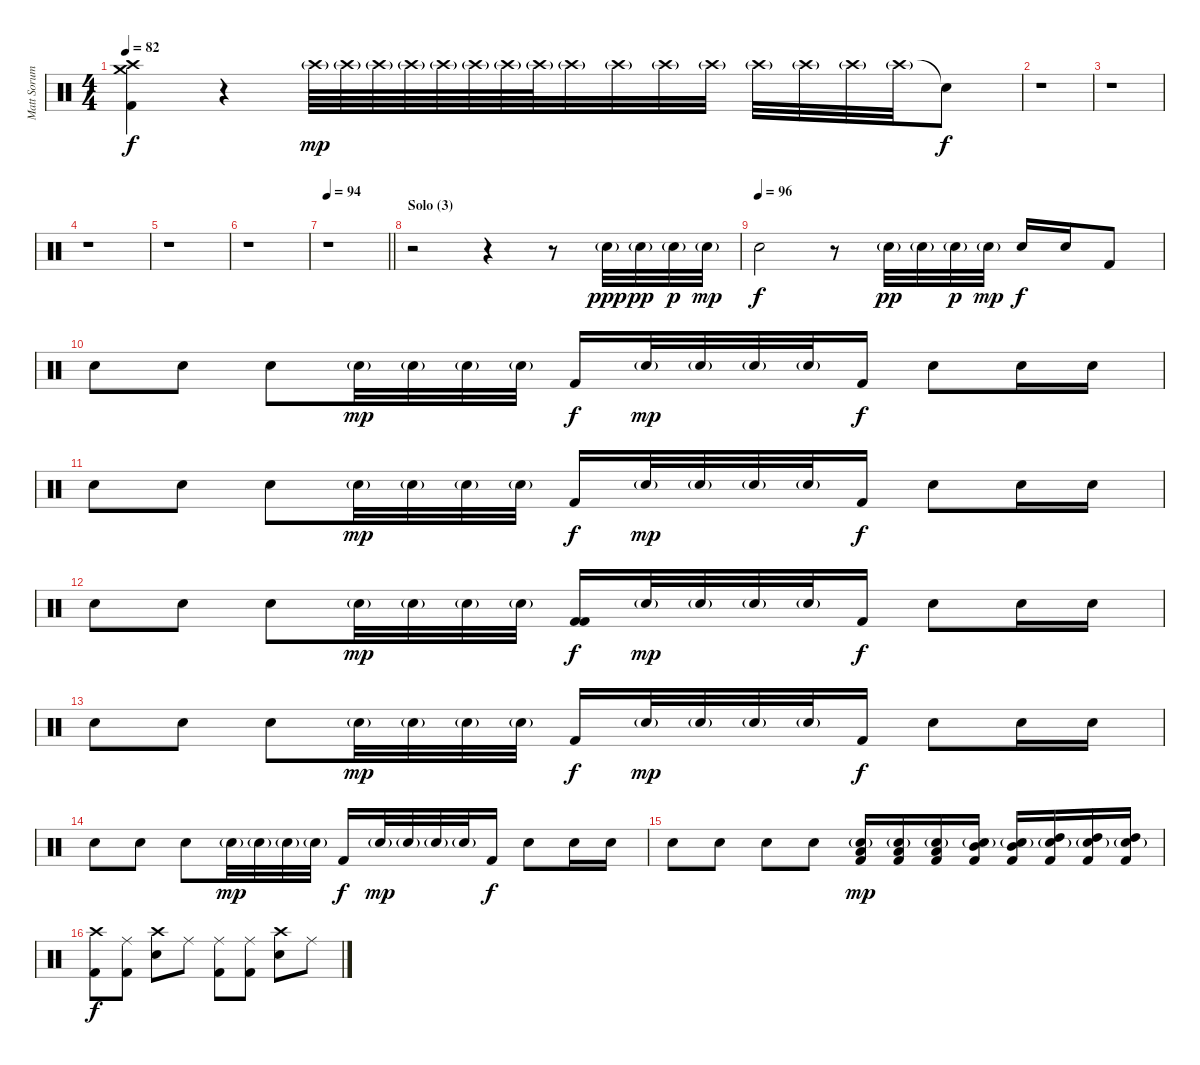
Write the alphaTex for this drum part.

\track ("Matt Sorum" "Matt Sorum") {instrument percussion}
\staff {score}
\articulation defaults
\ts (4 4)
\tempo 82
\clef neutral
\ks c
("Kick (hit) 2" "Crash medium (hit)" "Crash high (hit)").4{dy f} r.4 "Crash high (hit)"{g}.64{dy mp} "Crash high (hit)"{g}.64 "Crash high (hit)"{g}.64 "Crash high (hit)"{g}.64 "Crash high (hit)"{g}.64 "Crash high (hit)"{g}.64 "Crash high (hit)"{g}.64 "Crash high (hit)"{g}.64 "Crash high (hit)"{g}.32 "Crash high (hit)"{g}.32 "Crash high (hit)"{g}.32 "Crash high (hit)"{g}.32 "Crash high (hit)"{g}.32 "Crash high (hit)"{g}.32 "Crash high (hit)"{g}.32 "Crash high (hit)"{g}.32 "Snare (hit)"{t}.8{dy f} |
r.1 |
r.1 |
r.1 |
r.1 |
r.1 |
\tempo 94
\barLineRight lightlight
r.1 |
\section ("" "Solo (3)")
r.2 r.4 r.8 "Electric Snare (hit)"{g}.32{dy ppp} "Electric Snare (hit)"{g}.32{dy pp} "Electric Snare (hit)"{g}.32{dy p} "Electric Snare (hit)"{g}.32{dy mp} |
\tempo (96)
"Electric Snare (hit)".2{dy f} r.8 "Electric Snare (hit)"{g}.32{dy pp} "Electric Snare (hit)"{g}.32 "Electric Snare (hit)"{g}.32{dy p} "Electric Snare (hit)"{g}.32{dy mp} "Electric Snare (hit)".16{dy f} "Electric Snare (hit)".16 "Kick (hit) 2".8 |
"Electric Snare (hit)".8 "Electric Snare (hit)".8 "Electric Snare (hit)".8 "Electric Snare (hit)"{g}.32{dy mp} "Electric Snare (hit)"{g}.32 "Electric Snare (hit)"{g}.32 "Electric Snare (hit)"{g}.32 "Kick (hit) 2".16{dy f} "Electric Snare (hit)"{g}.32{dy mp} "Electric Snare (hit)"{g}.32 "Electric Snare (hit)"{g}.32 "Electric Snare (hit)"{g}.32 "Kick (hit) 2".16{dy f} "Electric Snare (hit)".8 "Electric Snare (hit)".16 "Electric Snare (hit)".16 |
"Electric Snare (hit)".8 "Electric Snare (hit)".8 "Electric Snare (hit)".8 "Electric Snare (hit)"{g}.32{dy mp} "Electric Snare (hit)"{g}.32 "Electric Snare (hit)"{g}.32 "Electric Snare (hit)"{g}.32 "Kick (hit) 2".16{dy f} "Electric Snare (hit)"{g}.32{dy mp} "Electric Snare (hit)"{g}.32 "Electric Snare (hit)"{g}.32 "Electric Snare (hit)"{g}.32 "Kick (hit) 2".16{dy f} "Electric Snare (hit)".8 "Electric Snare (hit)".16 "Electric Snare (hit)".16 |
"Electric Snare (hit)".8 "Electric Snare (hit)".8 "Electric Snare (hit)".8 "Electric Snare (hit)"{g}.32{dy mp} "Electric Snare (hit)"{g}.32 "Electric Snare (hit)"{g}.32 "Electric Snare (hit)"{g}.32 ("Kick (hit) 2" "Kick (hit) 2").16{dy f} "Electric Snare (hit)"{g}.32{dy mp} "Electric Snare (hit)"{g}.32 "Electric Snare (hit)"{g}.32 "Electric Snare (hit)"{g}.32 "Kick (hit) 2".16{dy f} "Electric Snare (hit)".8 "Electric Snare (hit)".16 "Electric Snare (hit)".16 |
"Electric Snare (hit)".8 "Electric Snare (hit)".8 "Electric Snare (hit)".8 "Electric Snare (hit)"{g}.32{dy mp} "Electric Snare (hit)"{g}.32 "Electric Snare (hit)"{g}.32 "Electric Snare (hit)"{g}.32 "Kick (hit) 2".16{dy f} "Electric Snare (hit)"{g}.32{dy mp} "Electric Snare (hit)"{g}.32 "Electric Snare (hit)"{g}.32 "Electric Snare (hit)"{g}.32 "Kick (hit) 2".16{dy f} "Electric Snare (hit)".8 "Electric Snare (hit)".16 "Electric Snare (hit)".16 |
"Electric Snare (hit)".8 "Electric Snare (hit)".8 "Electric Snare (hit)".8 "Electric Snare (hit)"{g}.32{dy mp} "Electric Snare (hit)"{g}.32 "Electric Snare (hit)"{g}.32 "Electric Snare (hit)"{g}.32 "Kick (hit) 2".16{dy f} "Electric Snare (hit)"{g}.32{dy mp} "Electric Snare (hit)"{g}.32 "Electric Snare (hit)"{g}.32 "Electric Snare (hit)"{g}.32 "Kick (hit) 2".16{dy f} "Electric Snare (hit)".8 "Electric Snare (hit)".16 "Electric Snare (hit)".16 |
"Electric Snare (hit)".8 "Electric Snare (hit)".8 "Electric Snare (hit)".8 "Electric Snare (hit)".8 ("Electric Snare (hit)"{g} "Low Tom (hit)" "Kick (hit) 2").16{dy mp volume 10} ("Electric Snare (hit)"{g} "Low Tom (hit)" "Kick (hit) 2").16 ("Electric Snare (hit)"{g} "Low Tom (hit)" "Kick (hit) 2").16 ("Electric Snare (hit)"{g} "Mid Tom (hit)" "Kick (hit) 2").16{volume 13} ("Electric Snare (hit)"{g} "Mid Tom (hit)" "Kick (hit) 2").16 ("Electric Snare (hit)"{g} "High Tom (hit)" "Kick (hit) 2").16 ("Electric Snare (hit)"{g} "High Tom (hit)" "Kick (hit) 2").16{volume 14} ("Electric Snare (hit)"{g} "High Tom (hit)" "Kick (hit) 2").16 |
("Crash high (hit)" "Kick (hit) 2").8{dy f} ("Ride (middle)" "Kick (hit) 2").8 ("Crash high (hit)" "Electric Snare (hit)").8 "Ride (middle)".8 ("Ride (middle)" "Kick (hit) 2").8 ("Ride (middle)" "Kick (hit) 2").8 ("Crash high (hit)" "Electric Snare (hit)").8 "Ride (middle)".8
